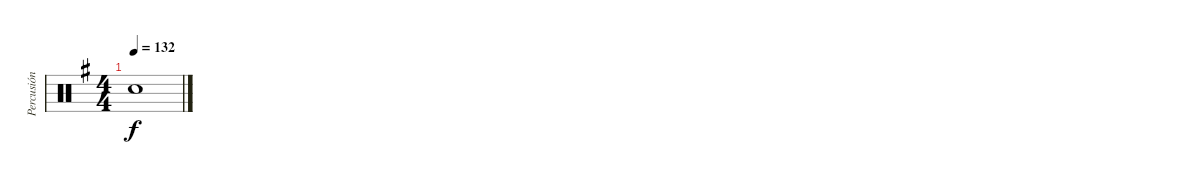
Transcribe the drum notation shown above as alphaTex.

\track ("Percusión" "Percusión") {instrument percussion}
\staff {score}
\articulation defaults
\ts (4 4)
\tempo 132
\clef neutral
\ks eminor "Snare (hit)"{t}.1{dy f}
